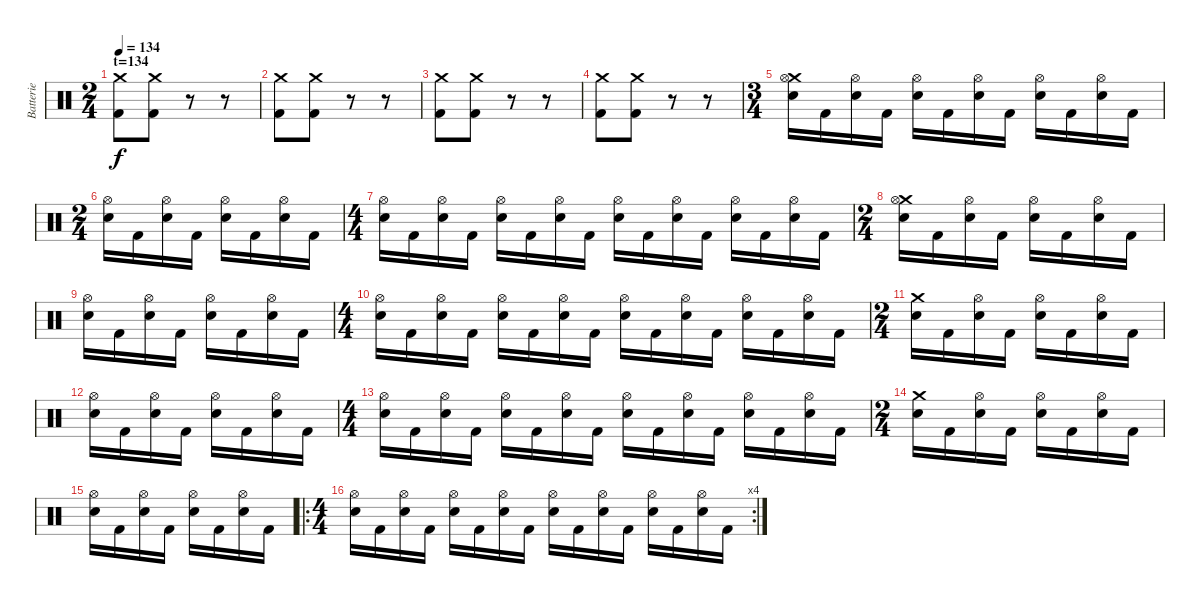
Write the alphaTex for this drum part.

\track ("Batterie" "Batterie") {instrument percussion}
\staff {score}
\articulation defaults
\ts (2 4)
\section ("" "t=134")
\tempo 134
\clef neutral
\ks c
("Crash medium (hit)" "Kick (hit) 2").8{dy f} ("Crash medium (hit)" "Kick (hit) 2").8 r.8 r.8 |
("Crash medium (hit)" "Kick (hit) 2").8 ("Crash medium (hit)" "Kick (hit) 2").8 r.8 r.8 |
("Crash medium (hit)" "Kick (hit) 2").8 ("Crash medium (hit)" "Kick (hit) 2").8 r.8 r.8 |
("Crash medium (hit)" "Kick (hit) 2").8 ("Crash medium (hit)" "Kick (hit) 2").8 r.8 r.8 |
\ts (3 4)
("Crash medium (hit)" "Hi-Hat (open)" "Electric Snare (hit)").16 "Kick (hit) 2".16 ("Hi-Hat (open)" "Electric Snare (hit)").16 "Kick (hit) 2".16 ("Hi-Hat (open)" "Electric Snare (hit)").16 "Kick (hit) 2".16 ("Hi-Hat (open)" "Electric Snare (hit)").16 "Kick (hit) 2".16 ("Hi-Hat (open)" "Electric Snare (hit)").16 "Kick (hit) 2".16 ("Hi-Hat (open)" "Electric Snare (hit)").16 "Kick (hit) 2".16 |
\ts (2 4)
("Hi-Hat (open)" "Electric Snare (hit)").16 "Kick (hit) 2".16 ("Hi-Hat (open)" "Electric Snare (hit)").16 "Kick (hit) 2".16 ("Hi-Hat (open)" "Electric Snare (hit)").16 "Kick (hit) 2".16 ("Hi-Hat (open)" "Electric Snare (hit)").16 "Kick (hit) 2".16 |
\ts (4 4)
("Hi-Hat (open)" "Electric Snare (hit)").16 "Kick (hit) 2".16 ("Hi-Hat (open)" "Electric Snare (hit)").16 "Kick (hit) 2".16 ("Hi-Hat (open)" "Electric Snare (hit)").16 "Kick (hit) 2".16 ("Hi-Hat (open)" "Electric Snare (hit)").16 "Kick (hit) 2".16 ("Hi-Hat (open)" "Electric Snare (hit)").16 "Kick (hit) 2".16 ("Hi-Hat (open)" "Electric Snare (hit)").16 "Kick (hit) 2".16 ("Hi-Hat (open)" "Electric Snare (hit)").16 "Kick (hit) 2".16 ("Hi-Hat (open)" "Electric Snare (hit)").16 "Kick (hit) 2".16 |
\ts (2 4)
("Crash medium (hit)" "Hi-Hat (open)" "Electric Snare (hit)").16 "Kick (hit) 2".16 ("Hi-Hat (open)" "Electric Snare (hit)").16 "Kick (hit) 2".16 ("Hi-Hat (open)" "Electric Snare (hit)").16 "Kick (hit) 2".16 ("Hi-Hat (open)" "Electric Snare (hit)").16 "Kick (hit) 2".16 |
("Hi-Hat (open)" "Electric Snare (hit)").16 "Kick (hit) 2".16 ("Hi-Hat (open)" "Electric Snare (hit)").16 "Kick (hit) 2".16 ("Hi-Hat (open)" "Electric Snare (hit)").16 "Kick (hit) 2".16 ("Hi-Hat (open)" "Electric Snare (hit)").16 "Kick (hit) 2".16 |
\ts (4 4)
("Hi-Hat (open)" "Electric Snare (hit)").16 "Kick (hit) 2".16 ("Hi-Hat (open)" "Electric Snare (hit)").16 "Kick (hit) 2".16 ("Hi-Hat (open)" "Electric Snare (hit)").16 "Kick (hit) 2".16 ("Hi-Hat (open)" "Electric Snare (hit)").16 "Kick (hit) 2".16 ("Hi-Hat (open)" "Electric Snare (hit)").16 "Kick (hit) 2".16 ("Hi-Hat (open)" "Electric Snare (hit)").16 "Kick (hit) 2".16 ("Hi-Hat (open)" "Electric Snare (hit)").16 "Kick (hit) 2".16 ("Hi-Hat (open)" "Electric Snare (hit)").16 "Kick (hit) 2".16 |
\ts (2 4)
("Crash medium (hit)" "Electric Snare (hit)").16 "Kick (hit) 2".16 ("Hi-Hat (open)" "Electric Snare (hit)").16 "Kick (hit) 2".16 ("Hi-Hat (open)" "Electric Snare (hit)").16 "Kick (hit) 2".16 ("Hi-Hat (open)" "Electric Snare (hit)").16 "Kick (hit) 2".16 |
("Hi-Hat (open)" "Electric Snare (hit)").16 "Kick (hit) 2".16 ("Hi-Hat (open)" "Electric Snare (hit)").16 "Kick (hit) 2".16 ("Hi-Hat (open)" "Electric Snare (hit)").16 "Kick (hit) 2".16 ("Hi-Hat (open)" "Electric Snare (hit)").16 "Kick (hit) 2".16 |
\ts (4 4)
("Hi-Hat (open)" "Electric Snare (hit)").16 "Kick (hit) 2".16 ("Hi-Hat (open)" "Electric Snare (hit)").16 "Kick (hit) 2".16 ("Hi-Hat (open)" "Electric Snare (hit)").16 "Kick (hit) 2".16 ("Hi-Hat (open)" "Electric Snare (hit)").16 "Kick (hit) 2".16 ("Hi-Hat (open)" "Electric Snare (hit)").16 "Kick (hit) 2".16 ("Hi-Hat (open)" "Electric Snare (hit)").16 "Kick (hit) 2".16 ("Hi-Hat (open)" "Electric Snare (hit)").16 "Kick (hit) 2".16 ("Hi-Hat (open)" "Electric Snare (hit)").16 "Kick (hit) 2".16 |
\ts (2 4)
("Crash medium (hit)" "Electric Snare (hit)").16 "Kick (hit) 2".16 ("Hi-Hat (open)" "Electric Snare (hit)").16 "Kick (hit) 2".16 ("Hi-Hat (open)" "Electric Snare (hit)").16 "Kick (hit) 2".16 ("Hi-Hat (open)" "Electric Snare (hit)").16 "Kick (hit) 2".16 |
("Hi-Hat (open)" "Electric Snare (hit)").16 "Kick (hit) 2".16 ("Hi-Hat (open)" "Electric Snare (hit)").16 "Kick (hit) 2".16 ("Hi-Hat (open)" "Electric Snare (hit)").16 "Kick (hit) 2".16 ("Hi-Hat (open)" "Electric Snare (hit)").16 "Kick (hit) 2".16 |
\ro
\rc 4
\ts (4 4)
("Hi-Hat (open)" "Electric Snare (hit)").16 "Kick (hit) 2".16 ("Hi-Hat (open)" "Electric Snare (hit)").16 "Kick (hit) 2".16 ("Hi-Hat (open)" "Electric Snare (hit)").16 "Kick (hit) 2".16 ("Hi-Hat (open)" "Electric Snare (hit)").16 "Kick (hit) 2".16 ("Hi-Hat (open)" "Electric Snare (hit)").16 "Kick (hit) 2".16 ("Hi-Hat (open)" "Electric Snare (hit)").16 "Kick (hit) 2".16 ("Hi-Hat (open)" "Electric Snare (hit)").16 "Kick (hit) 2".16 ("Hi-Hat (open)" "Electric Snare (hit)").16 "Kick (hit) 2".16
